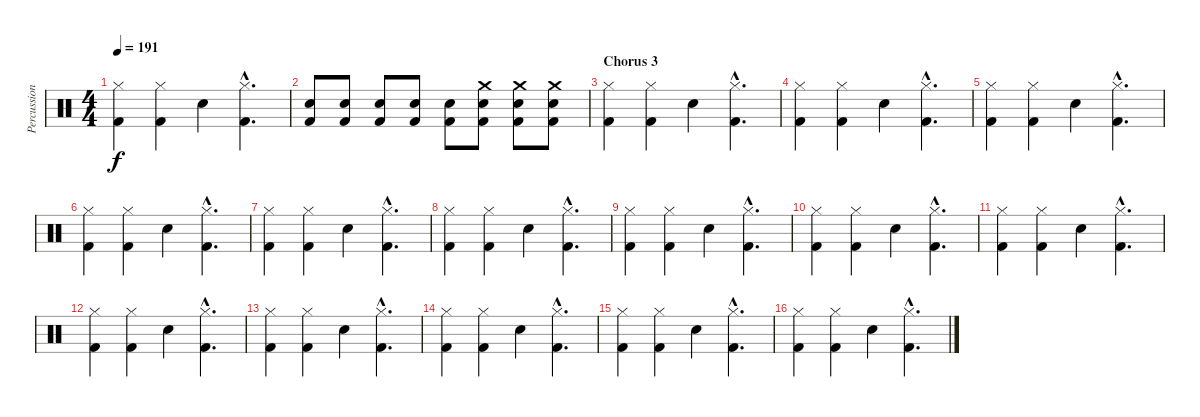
\track ("Percussion" "Percussion") {instrument percussion}
\staff {score}
\articulation defaults
\ts (4 4)
\tempo 191
\clef neutral
\ks c
("Hi-Hat (closed)" "Kick (hit) 2").4{dy f} ("Hi-Hat (closed)" "Kick (hit) 2").4 "Electric Snare (hit)".4 ("Hi-Hat (closed)"{hac} "Kick (hit) 2"{hac}).4{d} |
("Electric Snare (hit)" "Kick (hit) 2").8 ("Electric Snare (hit)" "Kick (hit) 2").8 ("Electric Snare (hit)" "Kick (hit) 2").8 ("Electric Snare (hit)" "Kick (hit) 2").8 ("Electric Snare (hit)" "Kick (hit) 2").8 ("Crash medium (hit)" "Electric Snare (hit)" "Kick (hit) 2").8 ("Crash medium (hit)" "Electric Snare (hit)" "Kick (hit) 2").8 ("Crash medium (hit)" "Electric Snare (hit)" "Kick (hit) 2").8 |
\section ("" "Chorus 3")
("Hi-Hat (closed)" "Kick (hit) 2").4 ("Hi-Hat (closed)" "Kick (hit) 2").4 "Electric Snare (hit)".4 ("Hi-Hat (closed)"{hac} "Kick (hit) 2"{hac}).4{d} |
("Hi-Hat (closed)" "Kick (hit) 2").4 ("Hi-Hat (closed)" "Kick (hit) 2").4 "Electric Snare (hit)".4 ("Hi-Hat (closed)"{hac} "Kick (hit) 2"{hac}).4{d} |
("Hi-Hat (closed)" "Kick (hit) 2").4 ("Hi-Hat (closed)" "Kick (hit) 2").4 "Electric Snare (hit)".4 ("Hi-Hat (closed)"{hac} "Kick (hit) 2"{hac}).4{d} |
("Hi-Hat (closed)" "Kick (hit) 2").4 ("Hi-Hat (closed)" "Kick (hit) 2").4 "Electric Snare (hit)".4 ("Hi-Hat (closed)"{hac} "Kick (hit) 2"{hac}).4{d} |
("Hi-Hat (closed)" "Kick (hit) 2").4 ("Hi-Hat (closed)" "Kick (hit) 2").4 "Electric Snare (hit)".4 ("Hi-Hat (closed)"{hac} "Kick (hit) 2"{hac}).4{d} |
("Hi-Hat (closed)" "Kick (hit) 2").4 ("Hi-Hat (closed)" "Kick (hit) 2").4 "Electric Snare (hit)".4 ("Hi-Hat (closed)"{hac} "Kick (hit) 2"{hac}).4{d} |
("Hi-Hat (closed)" "Kick (hit) 2").4 ("Hi-Hat (closed)" "Kick (hit) 2").4 "Electric Snare (hit)".4 ("Hi-Hat (closed)"{hac} "Kick (hit) 2"{hac}).4{d} |
("Hi-Hat (closed)" "Kick (hit) 2").4 ("Hi-Hat (closed)" "Kick (hit) 2").4 "Electric Snare (hit)".4 ("Hi-Hat (closed)"{hac} "Kick (hit) 2"{hac}).4{d} |
("Hi-Hat (closed)" "Kick (hit) 2").4 ("Hi-Hat (closed)" "Kick (hit) 2").4 "Electric Snare (hit)".4 ("Hi-Hat (closed)"{hac} "Kick (hit) 2"{hac}).4{d} |
("Hi-Hat (closed)" "Kick (hit) 2").4 ("Hi-Hat (closed)" "Kick (hit) 2").4 "Electric Snare (hit)".4 ("Hi-Hat (closed)"{hac} "Kick (hit) 2"{hac}).4{d} |
("Hi-Hat (closed)" "Kick (hit) 2").4 ("Hi-Hat (closed)" "Kick (hit) 2").4 "Electric Snare (hit)".4 ("Hi-Hat (closed)"{hac} "Kick (hit) 2"{hac}).4{d} |
("Hi-Hat (closed)" "Kick (hit) 2").4 ("Hi-Hat (closed)" "Kick (hit) 2").4 "Electric Snare (hit)".4 ("Hi-Hat (closed)"{hac} "Kick (hit) 2"{hac}).4{d} |
("Hi-Hat (closed)" "Kick (hit) 2").4 ("Hi-Hat (closed)" "Kick (hit) 2").4 "Electric Snare (hit)".4 ("Hi-Hat (closed)"{hac} "Kick (hit) 2"{hac}).4{d} |
("Hi-Hat (closed)" "Kick (hit) 2").4 ("Hi-Hat (closed)" "Kick (hit) 2").4 "Electric Snare (hit)".4 ("Hi-Hat (closed)"{hac} "Kick (hit) 2"{hac}).4{d}
